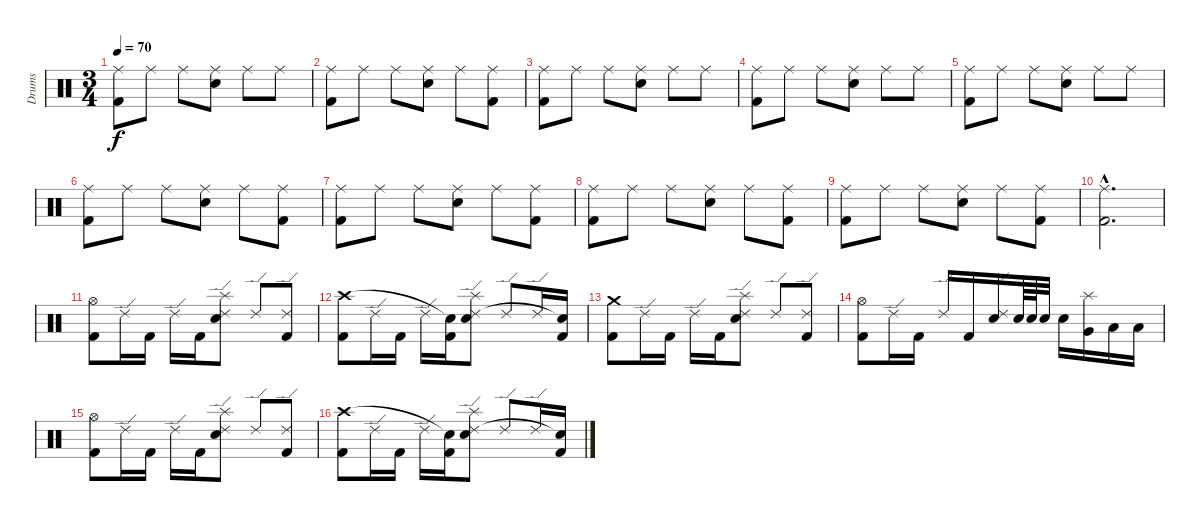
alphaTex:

\track ("Drums" "Drums") {instrument percussion}
\staff {score}
\articulation defaults
\ts (3 4)
\tempo 70
\clef neutral
\ks c
("Kick (hit) 2" "Ride (middle)").8{dy f} "Ride (middle)".8 "Ride (middle)".8 ("Snare (hit) 2" "Ride (middle)").8 "Ride (middle)".8 "Ride (middle)".8 |
("Kick (hit) 2" "Ride (middle)").8 "Ride (middle)".8 "Ride (middle)".8 ("Snare (hit) 2" "Ride (middle)").8 "Ride (middle)".8 ("Kick (hit) 2" "Ride (middle)").8 |
("Kick (hit) 2" "Ride (middle)").8 "Ride (middle)".8 "Ride (middle)".8 ("Snare (hit) 2" "Ride (middle)").8 "Ride (middle)".8 "Ride (middle)".8 |
("Kick (hit) 2" "Ride (middle)").8 "Ride (middle)".8 "Ride (middle)".8 ("Snare (hit) 2" "Ride (middle)").8 "Ride (middle)".8 "Ride (middle)".8 |
("Kick (hit) 2" "Ride (middle)").8 "Ride (middle)".8 "Ride (middle)".8 ("Snare (hit) 2" "Ride (middle)").8 "Ride (middle)".8 "Ride (middle)".8 |
("Kick (hit) 2" "Ride (middle)").8 "Ride (middle)".8 "Ride (middle)".8 ("Snare (hit) 2" "Ride (middle)").8 "Ride (middle)".8 ("Kick (hit) 2" "Ride (middle)").8 |
("Kick (hit) 2" "Ride (middle)").8 "Ride (middle)".8 "Ride (middle)".8 ("Snare (hit) 2" "Ride (middle)").8 "Ride (middle)".8 ("Kick (hit) 2" "Ride (middle)").8 |
("Kick (hit) 2" "Ride (middle)").8 "Ride (middle)".8 "Ride (middle)".8 ("Snare (hit) 2" "Ride (middle)").8 "Ride (middle)".8 ("Kick (hit) 2" "Ride (middle)").8 |
("Kick (hit) 2" "Ride (middle)").8 "Ride (middle)".8 "Ride (middle)".8 ("Snare (hit) 2" "Ride (middle)").8 "Ride (middle)".8 ("Kick (hit) 2" "Ride (middle)").8 |
("Kick (hit) 2"{hac} "Ride (middle)"{hac}).2{d} |
("Kick (hit) 2" "Hi-Hat (open)").8 "Ride (edge) 2".16 "Kick (hit) 2".16 "Ride (edge) 2".16 "Kick (hit) 2".16 ("Snare (hit) 2" "Ride (edge) 2" "Splash (hit)").8 "Ride (edge) 2".8 ("Kick (hit) 2" "Ride (edge) 2").8 |
("Kick (hit) 2" "Crash high (hit)").8 "Ride (edge) 2".16 "Kick (hit) 2".16 "Ride (edge) 2".16 ("Kick (hit) 2" "Snare (hit)"{t}).16 ("Snare (hit) 2" "Ride (edge) 2" "Splash (hit)").8 "Ride (edge) 2".8 "Ride (edge) 2".16 ("Kick (hit) 2" "Snare (hit)"{t}).16 |
("Kick (hit) 2" "Crash medium (hit)").8 "Ride (edge) 2".16 "Kick (hit) 2".16 "Ride (edge) 2".16 "Kick (hit) 2".16 ("Snare (hit) 2" "Ride (edge) 2" "Splash (hit)").8 "Ride (edge) 2".8 ("Kick (hit) 2" "Ride (edge) 2").8 |
("Kick (hit) 2" "Hi-Hat (open)").8 "Ride (edge) 2".16 "Kick (hit) 2".16 "Ride (edge) 2".16 "Kick (hit) 2".16 ("Snare (hit) 2" "Ride (edge) 2").16 "Snare (hit) 2".64 "Snare (hit) 2".64 "Snare (hit) 2".32 "Snare (hit) 2".16 ("Very Low Tom (hit)" "Splash (hit)").16 "Low Tom (hit)".16 "Low Floor Tom (hit)".16 |
("Kick (hit) 2" "Hi-Hat (open)").8 "Ride (edge) 2".16 "Kick (hit) 2".16 "Ride (edge) 2".16 "Kick (hit) 2".16 ("Snare (hit) 2" "Ride (edge) 2" "Splash (hit)").8 "Ride (edge) 2".8 ("Kick (hit) 2" "Ride (edge) 2").8 |
("Kick (hit) 2" "Crash high (hit)").8 "Ride (edge) 2".16 "Kick (hit) 2".16 "Ride (edge) 2".16 ("Kick (hit) 2" "Snare (hit)"{t}).16 ("Snare (hit) 2" "Ride (edge) 2" "Splash (hit)").8 "Ride (edge) 2".8 "Ride (edge) 2".16 ("Kick (hit) 2" "Snare (hit)"{t}).16
